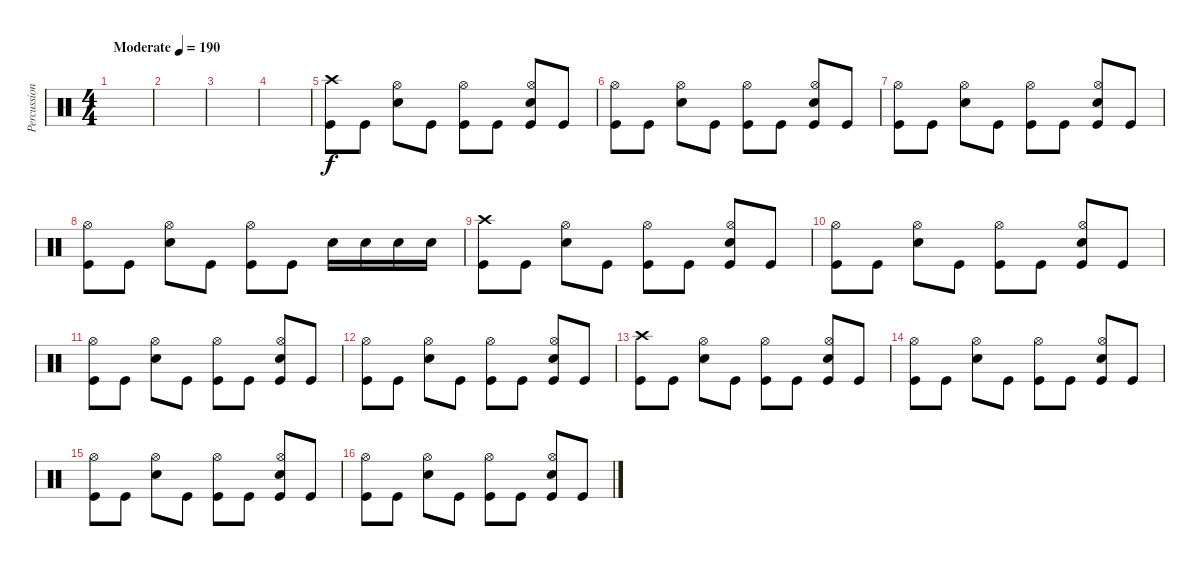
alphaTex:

\track ("Percussion" "Percussion") {instrument percussion}
\staff {score}
\articulation defaults
\ts (4 4)
\tempo (190 "Moderate")
\clef neutral
\ks c
|
|
|
|
("Crash high (hit)" "Kick (hit)").8 "Kick (hit)".8 ("Hi-Hat (open)" "Snare (hit) 2").8 "Kick (hit)".8 ("Hi-Hat (open)" "Kick (hit)").8 "Kick (hit)".8 ("Hi-Hat (open)" "Snare (hit) 2" "Kick (hit)").8 "Kick (hit)".8 |
("Hi-Hat (open)" "Kick (hit)").8 "Kick (hit)".8 ("Hi-Hat (open)" "Snare (hit) 2").8 "Kick (hit)".8 ("Hi-Hat (open)" "Kick (hit)").8 "Kick (hit)".8 ("Hi-Hat (open)" "Snare (hit) 2" "Kick (hit)").8 "Kick (hit)".8 |
("Hi-Hat (open)" "Kick (hit)").8 "Kick (hit)".8 ("Hi-Hat (open)" "Snare (hit) 2").8 "Kick (hit)".8 ("Hi-Hat (open)" "Kick (hit)").8 "Kick (hit)".8 ("Hi-Hat (open)" "Snare (hit) 2" "Kick (hit)").8 "Kick (hit)".8 |
("Hi-Hat (open)" "Kick (hit)").8 "Kick (hit)".8 ("Hi-Hat (open)" "Snare (hit) 2").8 "Kick (hit)".8 ("Hi-Hat (open)" "Kick (hit)").8 "Kick (hit)".8 "Snare (hit) 2".16 "Snare (hit) 2".16 "Snare (hit) 2".16 "Snare (hit) 2".16 |
("Crash high (hit)" "Kick (hit)").8 "Kick (hit)".8 ("Hi-Hat (open)" "Snare (hit) 2").8 "Kick (hit)".8 ("Hi-Hat (open)" "Kick (hit)").8 "Kick (hit)".8 ("Hi-Hat (open)" "Snare (hit) 2" "Kick (hit)").8 "Kick (hit)".8 |
("Hi-Hat (open)" "Kick (hit)").8 "Kick (hit)".8 ("Hi-Hat (open)" "Snare (hit) 2").8 "Kick (hit)".8 ("Hi-Hat (open)" "Kick (hit)").8 "Kick (hit)".8 ("Hi-Hat (open)" "Snare (hit) 2" "Kick (hit)").8 "Kick (hit)".8 |
("Hi-Hat (open)" "Kick (hit)").8 "Kick (hit)".8 ("Hi-Hat (open)" "Snare (hit) 2").8 "Kick (hit)".8 ("Hi-Hat (open)" "Kick (hit)").8 "Kick (hit)".8 ("Hi-Hat (open)" "Snare (hit) 2" "Kick (hit)").8 "Kick (hit)".8 |
("Hi-Hat (open)" "Kick (hit)").8 "Kick (hit)".8 ("Hi-Hat (open)" "Snare (hit) 2").8 "Kick (hit)".8 ("Hi-Hat (open)" "Kick (hit)").8 "Kick (hit)".8 ("Hi-Hat (open)" "Snare (hit) 2" "Kick (hit)").8 "Kick (hit)".8 |
("Crash high (hit)" "Kick (hit)").8 "Kick (hit)".8 ("Hi-Hat (open)" "Snare (hit) 2").8 "Kick (hit)".8 ("Hi-Hat (open)" "Kick (hit)").8 "Kick (hit)".8 ("Hi-Hat (open)" "Snare (hit) 2" "Kick (hit)").8 "Kick (hit)".8 |
("Hi-Hat (open)" "Kick (hit)").8 "Kick (hit)".8 ("Hi-Hat (open)" "Snare (hit) 2").8 "Kick (hit)".8 ("Hi-Hat (open)" "Kick (hit)").8 "Kick (hit)".8 ("Hi-Hat (open)" "Snare (hit) 2" "Kick (hit)").8 "Kick (hit)".8 |
("Hi-Hat (open)" "Kick (hit)").8 "Kick (hit)".8 ("Hi-Hat (open)" "Snare (hit) 2").8 "Kick (hit)".8 ("Hi-Hat (open)" "Kick (hit)").8 "Kick (hit)".8 ("Hi-Hat (open)" "Snare (hit) 2" "Kick (hit)").8 "Kick (hit)".8 |
("Hi-Hat (open)" "Kick (hit)").8 "Kick (hit)".8 ("Hi-Hat (open)" "Snare (hit) 2").8 "Kick (hit)".8 ("Hi-Hat (open)" "Kick (hit)").8 "Kick (hit)".8 ("Hi-Hat (open)" "Snare (hit) 2" "Kick (hit)").8 "Kick (hit)".8
